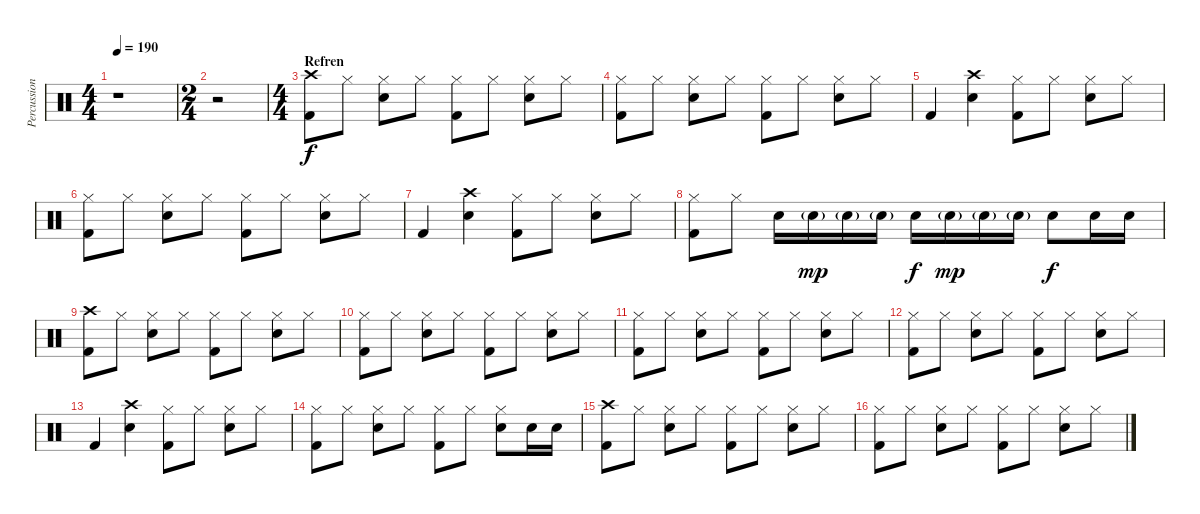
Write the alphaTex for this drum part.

\track ("Percussion" "Percussion") {instrument percussion}
\staff {score}
\articulation defaults
\ts (4 4)
\tempo 190
\clef neutral
\ks c
r.1{dy f} |
\ts (2 4)
r.2 |
\ts (4 4)
\section ("" "Refren")
("Crash high (hit)" "Kick (hit) 2").8 "Hi-Hat (closed)".8 ("Hi-Hat (closed)" "Electric Snare (hit)").8 "Hi-Hat (closed)".8 ("Hi-Hat (closed)" "Kick (hit) 2").8 "Hi-Hat (closed)".8 ("Hi-Hat (closed)" "Electric Snare (hit)").8 "Hi-Hat (closed)".8 |
("Hi-Hat (closed)" "Kick (hit) 2").8 "Hi-Hat (closed)".8 ("Hi-Hat (closed)" "Electric Snare (hit)").8 "Hi-Hat (closed)".8 ("Hi-Hat (closed)" "Kick (hit) 2").8 "Hi-Hat (closed)".8 ("Hi-Hat (closed)" "Electric Snare (hit)").8 "Hi-Hat (closed)".8 |
"Kick (hit) 2".4 ("Crash high (hit)" "Electric Snare (hit)").4 ("Hi-Hat (closed)" "Kick (hit) 2").8 "Hi-Hat (closed)".8 ("Hi-Hat (closed)" "Electric Snare (hit)").8 "Hi-Hat (closed)".8 |
("Hi-Hat (closed)" "Kick (hit) 2").8 "Hi-Hat (closed)".8 ("Hi-Hat (closed)" "Electric Snare (hit)").8 "Hi-Hat (closed)".8 ("Hi-Hat (closed)" "Kick (hit) 2").8 "Hi-Hat (closed)".8 ("Hi-Hat (closed)" "Electric Snare (hit)").8 "Hi-Hat (closed)".8 |
"Kick (hit) 2".4 ("Crash high (hit)" "Electric Snare (hit)").4 ("Hi-Hat (closed)" "Kick (hit) 2").8 "Hi-Hat (closed)".8 ("Hi-Hat (closed)" "Electric Snare (hit)").8 "Hi-Hat (closed)".8 |
("Hi-Hat (closed)" "Kick (hit) 2").8 "Hi-Hat (closed)".8 "Electric Snare (hit)".16 "Electric Snare (hit)"{g}.16{dy mp} "Electric Snare (hit)"{g}.16 "Electric Snare (hit)"{g}.16 "Electric Snare (hit)".16{dy f} "Electric Snare (hit)"{g}.16{dy mp} "Electric Snare (hit)"{g}.16 "Electric Snare (hit)"{g}.16 "Electric Snare (hit)".8{dy f} "Electric Snare (hit)".16 "Electric Snare (hit)".16 |
("Crash high (hit)" "Kick (hit) 2").8 "Hi-Hat (closed)".8 ("Hi-Hat (closed)" "Electric Snare (hit)").8 "Hi-Hat (closed)".8 ("Hi-Hat (closed)" "Kick (hit) 2").8 "Hi-Hat (closed)".8 ("Hi-Hat (closed)" "Electric Snare (hit)").8 "Hi-Hat (closed)".8 |
("Hi-Hat (closed)" "Kick (hit) 2").8 "Hi-Hat (closed)".8 ("Hi-Hat (closed)" "Electric Snare (hit)").8 "Hi-Hat (closed)".8 ("Hi-Hat (closed)" "Kick (hit) 2").8 "Hi-Hat (closed)".8 ("Hi-Hat (closed)" "Electric Snare (hit)").8 "Hi-Hat (closed)".8 |
("Hi-Hat (closed)" "Kick (hit) 2").8 "Hi-Hat (closed)".8 ("Hi-Hat (closed)" "Electric Snare (hit)").8 "Hi-Hat (closed)".8 ("Hi-Hat (closed)" "Kick (hit) 2").8 "Hi-Hat (closed)".8 ("Hi-Hat (closed)" "Electric Snare (hit)").8 "Hi-Hat (closed)".8 |
("Hi-Hat (closed)" "Kick (hit) 2").8 "Hi-Hat (closed)".8 ("Hi-Hat (closed)" "Electric Snare (hit)").8 "Hi-Hat (closed)".8 ("Hi-Hat (closed)" "Kick (hit) 2").8 "Hi-Hat (closed)".8 ("Hi-Hat (closed)" "Electric Snare (hit)").8 "Hi-Hat (closed)".8 |
"Kick (hit) 2".4 ("Crash high (hit)" "Electric Snare (hit)").4 ("Hi-Hat (closed)" "Kick (hit) 2").8 "Hi-Hat (closed)".8 ("Hi-Hat (closed)" "Electric Snare (hit)").8 "Hi-Hat (closed)".8 |
("Hi-Hat (closed)" "Kick (hit) 2").8 "Hi-Hat (closed)".8 ("Hi-Hat (closed)" "Electric Snare (hit)").8 "Hi-Hat (closed)".8 ("Hi-Hat (closed)" "Kick (hit) 2").8 "Hi-Hat (closed)".8 ("Hi-Hat (closed)" "Electric Snare (hit)").8 "Electric Snare (hit)".16 "Electric Snare (hit)".16 |
("Crash high (hit)" "Kick (hit) 2").8 "Hi-Hat (closed)".8 ("Hi-Hat (closed)" "Electric Snare (hit)").8 "Hi-Hat (closed)".8 ("Hi-Hat (closed)" "Kick (hit) 2").8 "Hi-Hat (closed)".8 ("Hi-Hat (closed)" "Electric Snare (hit)").8 "Hi-Hat (closed)".8 |
("Hi-Hat (closed)" "Kick (hit) 2").8 "Hi-Hat (closed)".8 ("Hi-Hat (closed)" "Electric Snare (hit)").8 "Hi-Hat (closed)".8 ("Hi-Hat (closed)" "Kick (hit) 2").8 "Hi-Hat (closed)".8 ("Hi-Hat (closed)" "Electric Snare (hit)").8 "Hi-Hat (closed)".8
